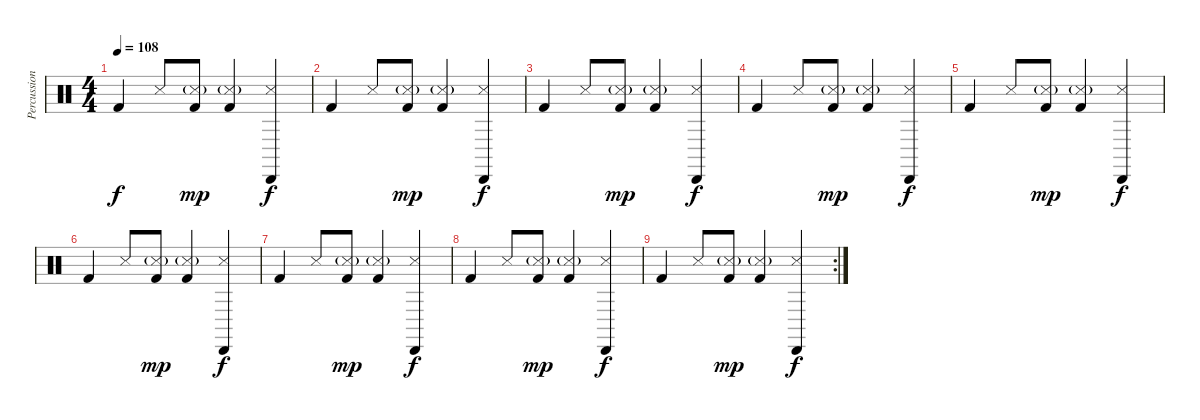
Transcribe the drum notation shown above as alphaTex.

\track ("Percussions" "Percussion") {instrument percussion}
\staff {score}
\articulation defaults
\ts (4 4)
\tempo 108
\clef neutral
\ks c "Kick (hit) 2".4{dy f} "Metronome (hit)".8
("Metronome (hit)"{g} "Kick (hit) 2").8{dy mp} ("Snare (side stick) 3"{g} "Kick (hit) 2").4 ("Cabasa (hit)" "Metronome (hit)").4{dy f} |
"Kick (hit) 2".4 "Metronome (hit)".8 ("Metronome (hit)"{g} "Kick (hit) 2").8{dy mp} ("Snare (side stick) 3"{g} "Kick (hit) 2").4 ("Cabasa (hit)" "Metronome (hit)").4{dy f} |
"Kick (hit) 2".4 "Metronome (hit)".8 ("Metronome (hit)"{g} "Kick (hit) 2").8{dy mp} ("Snare (side stick) 3"{g} "Kick (hit) 2").4 ("Cabasa (hit)" "Metronome (hit)").4{dy f} |
"Kick (hit) 2".4 "Metronome (hit)".8 ("Metronome (hit)"{g} "Kick (hit) 2").8{dy mp} ("Snare (side stick) 3"{g} "Kick (hit) 2").4 ("Cabasa (hit)" "Metronome (hit)").4{dy f} |
"Kick (hit) 2".4 "Metronome (hit)".8 ("Metronome (hit)"{g} "Kick (hit) 2").8{dy mp} ("Snare (side stick) 3"{g} "Kick (hit) 2").4 ("Cabasa (hit)" "Metronome (hit)").4{dy f} |
"Kick (hit) 2".4 "Metronome (hit)".8 ("Metronome (hit)"{g} "Kick (hit) 2").8{dy mp} ("Snare (side stick) 3"{g} "Kick (hit) 2").4 ("Cabasa (hit)" "Metronome (hit)").4{dy f} |
"Kick (hit) 2".4 "Metronome (hit)".8 ("Metronome (hit)"{g} "Kick (hit) 2").8{dy mp} ("Snare (side stick) 3"{g} "Kick (hit) 2").4 ("Cabasa (hit)" "Metronome (hit)").4{dy f} |
"Kick (hit) 2".4 "Metronome (hit)".8 ("Metronome (hit)"{g} "Kick (hit) 2").8{dy mp} ("Snare (side stick) 3"{g} "Kick (hit) 2").4 ("Cabasa (hit)" "Metronome (hit)").4{dy f} |
\rc 2 "Kick (hit) 2".4 "Metronome (hit)".8
("Metronome (hit)"{g} "Kick (hit) 2").8{dy mp} ("Snare (side stick) 3"{g} "Kick (hit) 2").4 ("Cabasa (hit)" "Metronome (hit)").4{dy f}
